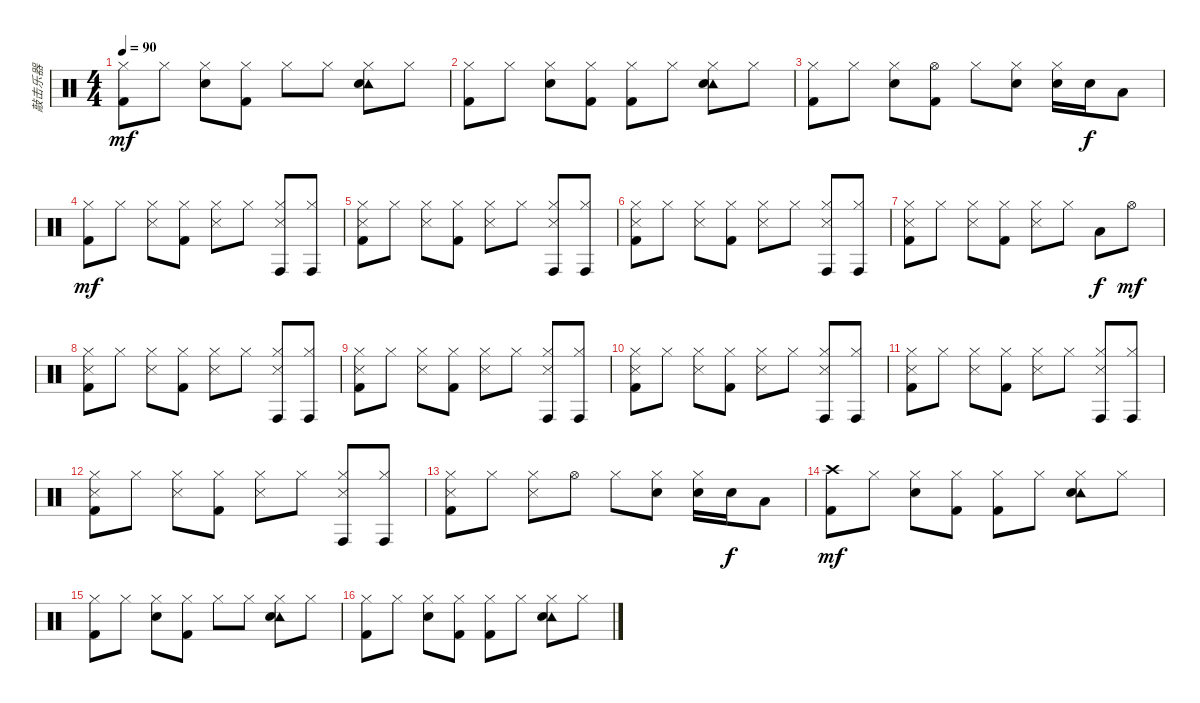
\track ("敲击乐器" "敲击乐器") {instrument percussion}
\staff {score}
\articulation defaults
\ts (4 4)
\tempo 90
\clef neutral
\ks c
("Hi-Hat (closed)" "Kick (hit) 2").8{dy mf} "Hi-Hat (closed)".8 ("Hi-Hat (closed)" "Snare (hit) 2").8 ("Hi-Hat (closed)" "Kick (hit) 2").8 "Hi-Hat (closed)".8 "Hi-Hat (closed)".8 ("Hi-Hat (closed)" "Tambourine (hit)" "Snare (hit) 2").8 "Hi-Hat (closed)".8 |
("Hi-Hat (closed)" "Kick (hit) 2").8 "Hi-Hat (closed)".8 ("Hi-Hat (closed)" "Snare (hit) 2").8 ("Hi-Hat (closed)" "Kick (hit) 2").8 ("Hi-Hat (closed)" "Kick (hit) 2").8 "Hi-Hat (closed)".8 ("Hi-Hat (closed)" "Tambourine (hit)" "Snare (hit) 2").8 "Hi-Hat (closed)".8 |
("Hi-Hat (closed)" "Kick (hit) 2").8 "Hi-Hat (closed)".8 ("Hi-Hat (closed)" "Snare (hit) 2").8 ("Hi-Hat (open)" "Kick (hit) 2").8 "Hi-Hat (closed)".8 ("Hi-Hat (closed)" "Snare (hit) 2").8 ("Hi-Hat (closed)" "Snare (hit) 2").16 "Snare (hit) 2".16{dy f} "Low Tom (hit)".8 |
("Hi-Hat (closed)" "Kick (hit) 2").8{dy mf} "Hi-Hat (closed)".8 ("Hi-Hat (closed)" "Snare (side stick) 3").8 ("Hi-Hat (closed)" "Kick (hit) 2").8 ("Hi-Hat (closed)" "Snare (side stick) 3").8 "Hi-Hat (closed)".8 ("Hi-Hat (closed)" "Conga high (hit)" "Snare (side stick) 3").8 ("Hi-Hat (closed)" "Conga high (hit)").8 |
("Hi-Hat (closed)" "Snare (side stick) 3" "Kick (hit) 2").8 "Hi-Hat (closed)".8 ("Hi-Hat (closed)" "Snare (side stick) 3").8 ("Hi-Hat (closed)" "Kick (hit) 2").8 ("Hi-Hat (closed)" "Snare (side stick) 3").8 "Hi-Hat (closed)".8 ("Hi-Hat (closed)" "Conga high (hit)" "Snare (side stick) 3").8 ("Hi-Hat (closed)" "Conga high (hit)").8 |
("Hi-Hat (closed)" "Snare (side stick) 3" "Kick (hit) 2").8 "Hi-Hat (closed)".8 ("Hi-Hat (closed)" "Snare (side stick) 3").8 ("Hi-Hat (closed)" "Kick (hit) 2").8 ("Hi-Hat (closed)" "Snare (side stick) 3").8 "Hi-Hat (closed)".8 ("Hi-Hat (closed)" "Conga high (hit)" "Snare (side stick) 3").8 ("Hi-Hat (closed)" "Conga high (hit)").8 |
("Hi-Hat (closed)" "Snare (side stick) 3" "Kick (hit) 2").8 "Hi-Hat (closed)".8 ("Hi-Hat (closed)" "Snare (side stick) 3").8 ("Hi-Hat (closed)" "Kick (hit) 2").8 ("Hi-Hat (closed)" "Snare (side stick) 3").8 "Hi-Hat (closed)".8 "Low Tom (hit)".8{dy f} "Hi-Hat (open)".8{dy mf} |
("Hi-Hat (closed)" "Snare (side stick) 3" "Kick (hit) 2").8 "Hi-Hat (closed)".8 ("Hi-Hat (closed)" "Snare (side stick) 3").8 ("Hi-Hat (closed)" "Kick (hit) 2").8 ("Hi-Hat (closed)" "Snare (side stick) 3").8 "Hi-Hat (closed)".8 ("Hi-Hat (closed)" "Conga high (hit)" "Snare (side stick) 3").8 ("Hi-Hat (closed)" "Conga high (hit)").8 |
("Hi-Hat (closed)" "Snare (side stick) 3" "Kick (hit) 2").8 "Hi-Hat (closed)".8 ("Hi-Hat (closed)" "Snare (side stick) 3").8 ("Hi-Hat (closed)" "Kick (hit) 2").8 ("Hi-Hat (closed)" "Snare (side stick) 3").8 "Hi-Hat (closed)".8 ("Hi-Hat (closed)" "Conga high (hit)" "Snare (side stick) 3").8 ("Hi-Hat (closed)" "Conga high (hit)").8 |
("Hi-Hat (closed)" "Snare (side stick) 3" "Kick (hit) 2").8 "Hi-Hat (closed)".8 ("Hi-Hat (closed)" "Snare (side stick) 3").8 ("Hi-Hat (closed)" "Kick (hit) 2").8 ("Hi-Hat (closed)" "Snare (side stick) 3").8 "Hi-Hat (closed)".8 ("Hi-Hat (closed)" "Conga high (hit)" "Snare (side stick) 3").8 ("Hi-Hat (closed)" "Conga high (hit)").8 |
("Hi-Hat (closed)" "Snare (side stick) 3" "Kick (hit) 2").8 "Hi-Hat (closed)".8 ("Hi-Hat (closed)" "Snare (side stick) 3").8 ("Hi-Hat (closed)" "Kick (hit) 2").8 ("Hi-Hat (closed)" "Snare (side stick) 3").8 "Hi-Hat (closed)".8 ("Hi-Hat (closed)" "Conga high (hit)" "Snare (side stick) 3").8 ("Hi-Hat (closed)" "Conga high (hit)").8 |
("Hi-Hat (closed)" "Snare (side stick) 3" "Kick (hit) 2").8 "Hi-Hat (closed)".8 ("Hi-Hat (closed)" "Snare (side stick) 3").8 ("Hi-Hat (closed)" "Kick (hit) 2").8 ("Hi-Hat (closed)" "Snare (side stick) 3").8 "Hi-Hat (closed)".8 ("Hi-Hat (closed)" "Conga high (hit)" "Snare (side stick) 3").8 ("Hi-Hat (closed)" "Conga high (hit)").8 |
("Hi-Hat (closed)" "Snare (side stick) 3" "Kick (hit) 2").8 "Hi-Hat (closed)".8 ("Hi-Hat (closed)" "Snare (side stick) 3").8 "Hi-Hat (open)".8 "Hi-Hat (closed)".8 ("Hi-Hat (closed)" "Snare (hit) 2").8 ("Hi-Hat (closed)" "Snare (hit) 2").16 "Snare (hit) 2".16{dy f} "Low Tom (hit)".8 |
("Crash high (hit)" "Kick (hit) 2").8{dy mf} "Hi-Hat (closed)".8 ("Hi-Hat (closed)" "Snare (hit) 2").8 ("Hi-Hat (closed)" "Kick (hit) 2").8 ("Hi-Hat (closed)" "Kick (hit) 2").8 "Hi-Hat (closed)".8 ("Hi-Hat (closed)" "Tambourine (hit)" "Snare (hit) 2").8 "Hi-Hat (closed)".8 |
("Hi-Hat (closed)" "Kick (hit) 2").8 "Hi-Hat (closed)".8 ("Hi-Hat (closed)" "Snare (hit) 2").8 ("Hi-Hat (closed)" "Kick (hit) 2").8 "Hi-Hat (closed)".8 "Hi-Hat (closed)".8 ("Hi-Hat (closed)" "Tambourine (hit)" "Snare (hit) 2").8 "Hi-Hat (closed)".8 |
("Hi-Hat (closed)" "Kick (hit) 2").8 "Hi-Hat (closed)".8 ("Hi-Hat (closed)" "Snare (hit) 2").8 ("Hi-Hat (closed)" "Kick (hit) 2").8 ("Hi-Hat (closed)" "Kick (hit) 2").8 "Hi-Hat (closed)".8 ("Hi-Hat (closed)" "Tambourine (hit)" "Snare (hit) 2").8 "Hi-Hat (closed)".8
